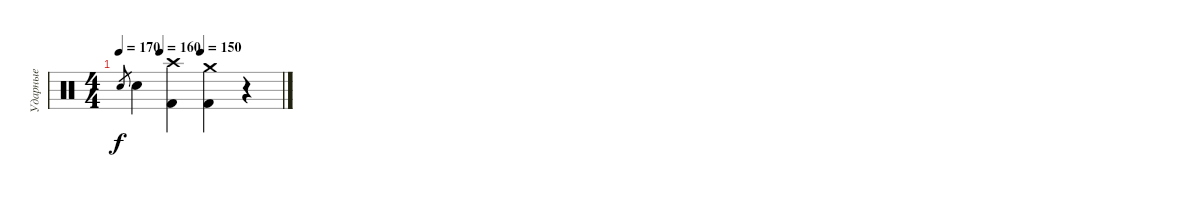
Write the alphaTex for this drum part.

\track ("Ударные" "Ударные") {instrument percussion}
\staff {score}
\articulation defaults
\ts (4 4)
\tempo 170
\tempo (160 0.25)
\tempo (150 0.5)
\clef neutral
\ks c "Electric Snare (hit)".8{gr dy f} "Electric Snare (hit)".4
("Crash high (hit)" "Kick (hit) 2").4 ("Crash medium (hit)" "Kick (hit) 2").4 r.4
